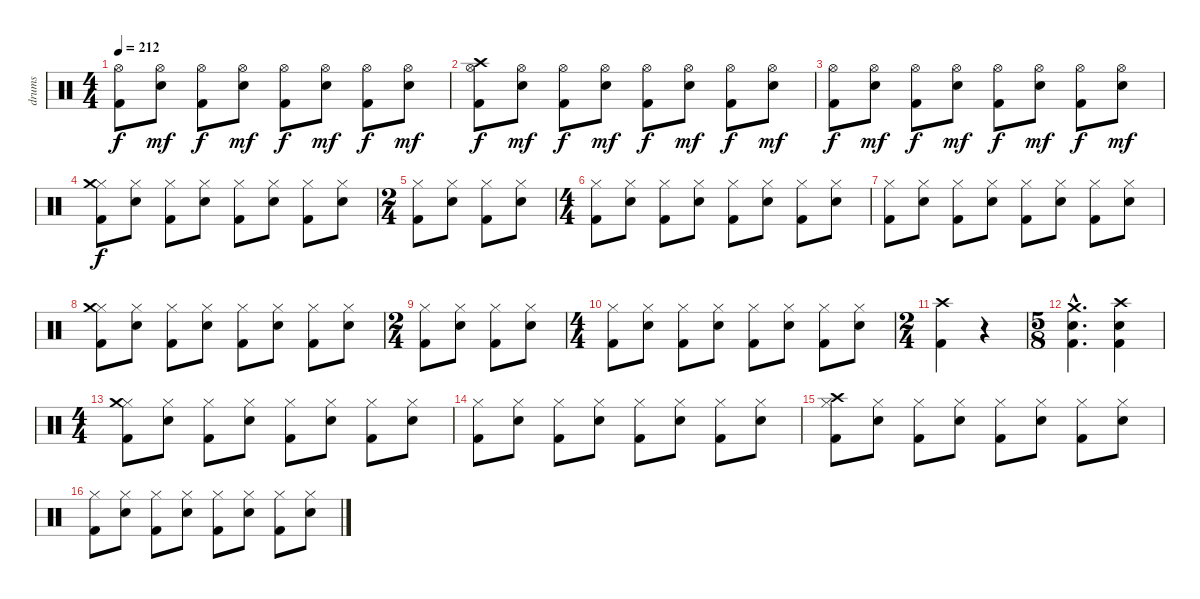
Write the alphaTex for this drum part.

\track ("drums" "drums") {instrument percussion}
\staff {score}
\articulation defaults
\ts (4 4)
\tempo 212
\clef neutral
\ks c
("Kick (hit) 2" "Hi-Hat (open)").8{dy f} ("Snare (hit) 2" "Hi-Hat (open)").8{dy mf} ("Kick (hit) 2" "Hi-Hat (open)").8{dy f} ("Snare (hit) 2" "Hi-Hat (open)").8{dy mf} ("Kick (hit) 2" "Hi-Hat (open)").8{dy f} ("Snare (hit) 2" "Hi-Hat (open)").8{dy mf} ("Kick (hit) 2" "Hi-Hat (open)").8{dy f} ("Snare (hit) 2" "Hi-Hat (open)").8{dy mf} |
("Kick (hit) 2" "Hi-Hat (open)" "Crash high (hit)").8{dy f} ("Snare (hit) 2" "Hi-Hat (open)").8{dy mf} ("Kick (hit) 2" "Hi-Hat (open)").8{dy f} ("Snare (hit) 2" "Hi-Hat (open)").8{dy mf} ("Kick (hit) 2" "Hi-Hat (open)").8{dy f} ("Snare (hit) 2" "Hi-Hat (open)").8{dy mf} ("Kick (hit) 2" "Hi-Hat (open)").8{dy f} ("Snare (hit) 2" "Hi-Hat (open)").8{dy mf} |
("Kick (hit) 2" "Hi-Hat (open)").8{dy f} ("Snare (hit) 2" "Hi-Hat (open)").8{dy mf} ("Kick (hit) 2" "Hi-Hat (open)").8{dy f} ("Snare (hit) 2" "Hi-Hat (open)").8{dy mf} ("Kick (hit) 2" "Hi-Hat (open)").8{dy f} ("Snare (hit) 2" "Hi-Hat (open)").8{dy mf} ("Kick (hit) 2" "Hi-Hat (open)").8{dy f} ("Snare (hit) 2" "Hi-Hat (open)").8{dy mf} |
("Kick (hit) 2" "Hi-Hat (closed)" "Crash medium (hit)").8{dy f} ("Snare (hit) 2" "Hi-Hat (closed)").8 ("Kick (hit) 2" "Hi-Hat (closed)").8 ("Snare (hit) 2" "Hi-Hat (closed)").8 ("Kick (hit) 2" "Hi-Hat (closed)").8 ("Snare (hit) 2" "Hi-Hat (closed)").8 ("Kick (hit) 2" "Hi-Hat (closed)").8 ("Snare (hit) 2" "Hi-Hat (closed)").8 |
\ts (2 4)
("Kick (hit) 2" "Hi-Hat (closed)").8 ("Snare (hit) 2" "Hi-Hat (closed)").8 ("Kick (hit) 2" "Hi-Hat (closed)").8 ("Snare (hit) 2" "Hi-Hat (closed)").8 |
\ts (4 4)
("Kick (hit) 2" "Hi-Hat (closed)").8 ("Snare (hit) 2" "Hi-Hat (closed)").8 ("Kick (hit) 2" "Hi-Hat (closed)").8 ("Snare (hit) 2" "Hi-Hat (closed)").8 ("Kick (hit) 2" "Hi-Hat (closed)").8 ("Snare (hit) 2" "Hi-Hat (closed)").8 ("Kick (hit) 2" "Hi-Hat (closed)").8 ("Snare (hit) 2" "Hi-Hat (closed)").8 |
("Kick (hit) 2" "Hi-Hat (closed)").8 ("Snare (hit) 2" "Hi-Hat (closed)").8 ("Kick (hit) 2" "Hi-Hat (closed)").8 ("Snare (hit) 2" "Hi-Hat (closed)").8 ("Kick (hit) 2" "Hi-Hat (closed)").8 ("Snare (hit) 2" "Hi-Hat (closed)").8 ("Kick (hit) 2" "Hi-Hat (closed)").8 ("Snare (hit) 2" "Hi-Hat (closed)").8 |
("Kick (hit) 2" "Hi-Hat (closed)" "Crash medium (hit)").8 ("Snare (hit) 2" "Hi-Hat (closed)").8 ("Kick (hit) 2" "Hi-Hat (closed)").8 ("Snare (hit) 2" "Hi-Hat (closed)").8 ("Kick (hit) 2" "Hi-Hat (closed)").8 ("Snare (hit) 2" "Hi-Hat (closed)").8 ("Kick (hit) 2" "Hi-Hat (closed)").8 ("Snare (hit) 2" "Hi-Hat (closed)").8 |
\ts (2 4)
("Kick (hit) 2" "Hi-Hat (closed)").8 ("Snare (hit) 2" "Hi-Hat (closed)").8 ("Kick (hit) 2" "Hi-Hat (closed)").8 ("Snare (hit) 2" "Hi-Hat (closed)").8 |
\ts (4 4)
("Kick (hit) 2" "Hi-Hat (closed)").8 ("Snare (hit) 2" "Hi-Hat (closed)").8 ("Kick (hit) 2" "Hi-Hat (closed)").8 ("Snare (hit) 2" "Hi-Hat (closed)").8 ("Kick (hit) 2" "Hi-Hat (closed)").8 ("Snare (hit) 2" "Hi-Hat (closed)").8 ("Kick (hit) 2" "Hi-Hat (closed)").8 ("Snare (hit) 2" "Hi-Hat (closed)").8 |
\ts (2 4)
("Kick (hit) 2" "Crash high (hit)").4 r.4 |
\ts (5 8)
("Kick (hit) 2"{hac} "Snare (hit) 2"{hac} "Crash medium (hit)"{hac}).4{d} ("Kick (hit) 2" "Snare (hit) 2" "Crash high (hit)").4 |
\ts (4 4)
("Kick (hit) 2" "Hi-Hat (closed)" "Crash medium (hit)").8 ("Snare (hit) 2" "Hi-Hat (closed)").8 ("Kick (hit) 2" "Hi-Hat (closed)").8 ("Snare (hit) 2" "Hi-Hat (closed)").8 ("Kick (hit) 2" "Hi-Hat (closed)").8 ("Snare (hit) 2" "Hi-Hat (closed)").8 ("Kick (hit) 2" "Hi-Hat (closed)").8 ("Snare (hit) 2" "Hi-Hat (closed)").8 |
("Kick (hit) 2" "Hi-Hat (closed)").8 ("Snare (hit) 2" "Hi-Hat (closed)").8 ("Kick (hit) 2" "Hi-Hat (closed)").8 ("Snare (hit) 2" "Hi-Hat (closed)").8 ("Kick (hit) 2" "Hi-Hat (closed)").8 ("Snare (hit) 2" "Hi-Hat (closed)").8 ("Kick (hit) 2" "Hi-Hat (closed)").8 ("Snare (hit) 2" "Hi-Hat (closed)").8 |
("Kick (hit) 2" "Hi-Hat (closed)" "Crash high (hit)").8 ("Snare (hit) 2" "Hi-Hat (closed)").8 ("Kick (hit) 2" "Hi-Hat (closed)").8 ("Snare (hit) 2" "Hi-Hat (closed)").8 ("Kick (hit) 2" "Hi-Hat (closed)").8 ("Snare (hit) 2" "Hi-Hat (closed)").8 ("Kick (hit) 2" "Hi-Hat (closed)").8 ("Snare (hit) 2" "Hi-Hat (closed)").8 |
("Kick (hit) 2" "Hi-Hat (closed)").8 ("Snare (hit) 2" "Hi-Hat (closed)").8 ("Kick (hit) 2" "Hi-Hat (closed)").8 ("Snare (hit) 2" "Hi-Hat (closed)").8 ("Kick (hit) 2" "Hi-Hat (closed)").8 ("Snare (hit) 2" "Hi-Hat (closed)").8 ("Kick (hit) 2" "Hi-Hat (closed)").8 ("Snare (hit) 2" "Hi-Hat (closed)").8
